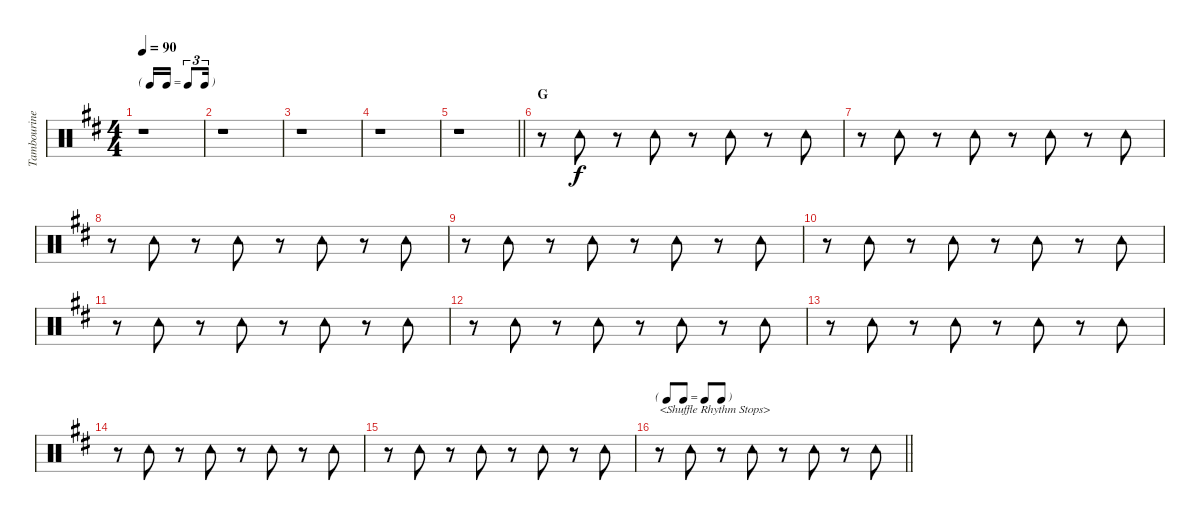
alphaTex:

\track ("Tambourine" "Tambourine") {instrument percussion}
\staff {score}
\articulation defaults
\ts (4 4)
\tf triplet16th
\tempo 90
\clef neutral
\ks d
r.1{dy f} |
r.1 |
r.1 |
r.1 |
\barLineRight lightlight
r.1 |
\section ("" "G")
r.8 "Tambourine (hit)".8 r.8 "Tambourine (hit)".8 r.8 "Tambourine (hit)".8 r.8 "Tambourine (hit)".8 |
r.8 "Tambourine (hit)".8 r.8 "Tambourine (hit)".8 r.8 "Tambourine (hit)".8 r.8 "Tambourine (hit)".8 |
r.8 "Tambourine (hit)".8 r.8 "Tambourine (hit)".8 r.8 "Tambourine (hit)".8 r.8 "Tambourine (hit)".8 |
r.8 "Tambourine (hit)".8 r.8 "Tambourine (hit)".8 r.8 "Tambourine (hit)".8 r.8 "Tambourine (hit)".8 |
r.8 "Tambourine (hit)".8 r.8 "Tambourine (hit)".8 r.8 "Tambourine (hit)".8 r.8 "Tambourine (hit)".8 |
r.8 "Tambourine (hit)".8 r.8 "Tambourine (hit)".8 r.8 "Tambourine (hit)".8 r.8 "Tambourine (hit)".8 |
r.8 "Tambourine (hit)".8 r.8 "Tambourine (hit)".8 r.8 "Tambourine (hit)".8 r.8 "Tambourine (hit)".8 |
r.8 "Tambourine (hit)".8 r.8 "Tambourine (hit)".8 r.8 "Tambourine (hit)".8 r.8 "Tambourine (hit)".8 |
r.8 "Tambourine (hit)".8 r.8 "Tambourine (hit)".8 r.8 "Tambourine (hit)".8 r.8 "Tambourine (hit)".8 |
r.8 "Tambourine (hit)".8 r.8 "Tambourine (hit)".8 r.8 "Tambourine (hit)".8 r.8 "Tambourine (hit)".8 |
\tf none
\barLineRight lightlight
r.8{txt "<Shuffle Rhythm Stops>"} "Tambourine (hit)".8 r.8 "Tambourine (hit)".8 r.8 "Tambourine (hit)".8 r.8 "Tambourine (hit)".8
